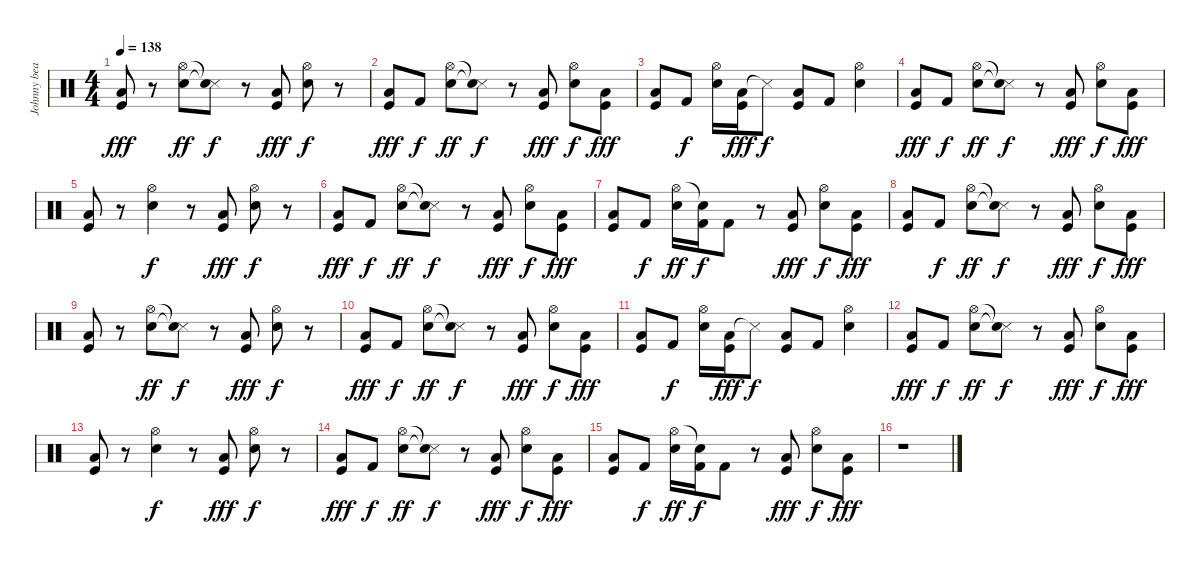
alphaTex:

\track ("Johnny beat" "Johnny bea") {instrument percussion}
\staff {score}
\articulation defaults
\ts (4 4)
\tempo 138
\clef neutral
\ks c
("Low Tom (hit)" "Kick (hit)").8{dy fff} r.8 ("Electric Snare (hit)" "Hi-Hat (open)").8{dy ff} ("Snare (side stick) 3"{t} "Snare (hit)"{t}).8{dy f} r.8 ("Low Tom (hit)" "Kick (hit)").8{dy fff} ("Electric Snare (hit)" "Hi-Hat (open)").8{dy f} r.8 |
("Low Tom (hit)" "Kick (hit)").8{dy fff} "Kick (hit) 2".8{dy f} ("Electric Snare (hit)" "Hi-Hat (open)").8{dy ff} ("Snare (side stick) 3"{t} "Snare (hit)"{t}).8{dy f} r.8 ("Low Tom (hit)" "Kick (hit)").8{dy fff} ("Electric Snare (hit)" "Hi-Hat (open)").8{dy f} ("Low Tom (hit)" "Kick (hit)").8{dy fff} |
("Low Tom (hit)" "Kick (hit)").8 "Kick (hit) 2".8{dy f} ("Electric Snare (hit)" "Hi-Hat (open)").16 ("Low Tom (hit)" "Kick (hit)").16{dy fff} "Snare (side stick) 3"{t}.8{dy f} ("Kick (hit)" "Low Tom (hit)").8 "Kick (hit) 2".8 ("Electric Snare (hit)" "Hi-Hat (open)").4 |
("Low Tom (hit)" "Kick (hit)").8{dy fff} "Kick (hit) 2".8{dy f} ("Electric Snare (hit)" "Hi-Hat (open)").8{dy ff} ("Snare (side stick) 3"{t} "Snare (hit)"{t}).8{dy f} r.8 ("Low Tom (hit)" "Kick (hit)").8{dy fff} ("Electric Snare (hit)" "Hi-Hat (open)").8{dy f} ("Low Tom (hit)" "Kick (hit)").8{dy fff} |
("Low Tom (hit)" "Kick (hit)").8 r.8 ("Electric Snare (hit)" "Hi-Hat (open)").4{dy f} r.8 ("Low Tom (hit)" "Kick (hit)").8{dy fff} ("Electric Snare (hit)" "Hi-Hat (open)").8{dy f} r.8 |
("Low Tom (hit)" "Kick (hit)").8{dy fff} "Kick (hit) 2".8{dy f} ("Electric Snare (hit)" "Hi-Hat (open)").8{dy ff} ("Snare (side stick) 3"{t} "Snare (hit)"{t}).8{dy f} r.8 ("Low Tom (hit)" "Kick (hit)").8{dy fff} ("Electric Snare (hit)" "Hi-Hat (open)").8{dy f} ("Low Tom (hit)" "Kick (hit)").8{dy fff} |
("Low Tom (hit)" "Kick (hit)").8 "Kick (hit) 2".8{dy f} ("Electric Snare (hit)" "Hi-Hat (open)").16{dy ff} ("Kick (hit) 2" "Snare (hit)"{t}).16{dy f} "Kick (hit) 2".8 r.8 ("Low Tom (hit)" "Kick (hit)").8{dy fff} ("Electric Snare (hit)" "Hi-Hat (open)").8{dy f} ("Low Tom (hit)" "Kick (hit)").8{dy fff} |
("Low Tom (hit)" "Kick (hit)").8 "Kick (hit) 2".8{dy f} ("Electric Snare (hit)" "Hi-Hat (open)").8{dy ff} ("Snare (side stick) 3"{t} "Snare (hit)"{t}).8{dy f} r.8 ("Low Tom (hit)" "Kick (hit)").8{dy fff} ("Electric Snare (hit)" "Hi-Hat (open)").8{dy f} ("Low Tom (hit)" "Kick (hit)").8{dy fff} |
("Low Tom (hit)" "Kick (hit)").8 r.8 ("Electric Snare (hit)" "Hi-Hat (open)").8{dy ff} ("Snare (side stick) 3"{t} "Snare (hit)"{t}).8{dy f} r.8 ("Low Tom (hit)" "Kick (hit)").8{dy fff} ("Electric Snare (hit)" "Hi-Hat (open)").8{dy f} r.8 |
("Low Tom (hit)" "Kick (hit)").8{dy fff} "Kick (hit) 2".8{dy f} ("Electric Snare (hit)" "Hi-Hat (open)").8{dy ff} ("Snare (side stick) 3"{t} "Snare (hit)"{t}).8{dy f} r.8 ("Low Tom (hit)" "Kick (hit)").8{dy fff} ("Electric Snare (hit)" "Hi-Hat (open)").8{dy f} ("Low Tom (hit)" "Kick (hit)").8{dy fff} |
("Low Tom (hit)" "Kick (hit)").8 "Kick (hit) 2".8{dy f} ("Electric Snare (hit)" "Hi-Hat (open)").16 ("Low Tom (hit)" "Kick (hit)").16{dy fff} "Snare (side stick) 3"{t}.8{dy f} ("Kick (hit)" "Low Tom (hit)").8 "Kick (hit) 2".8 ("Electric Snare (hit)" "Hi-Hat (open)").4 |
("Low Tom (hit)" "Kick (hit)").8{dy fff} "Kick (hit) 2".8{dy f} ("Electric Snare (hit)" "Hi-Hat (open)").8{dy ff} ("Snare (side stick) 3"{t} "Snare (hit)"{t}).8{dy f} r.8 ("Low Tom (hit)" "Kick (hit)").8{dy fff} ("Electric Snare (hit)" "Hi-Hat (open)").8{dy f} ("Low Tom (hit)" "Kick (hit)").8{dy fff} |
("Low Tom (hit)" "Kick (hit)").8 r.8 ("Electric Snare (hit)" "Hi-Hat (open)").4{dy f} r.8 ("Low Tom (hit)" "Kick (hit)").8{dy fff} ("Electric Snare (hit)" "Hi-Hat (open)").8{dy f} r.8 |
("Low Tom (hit)" "Kick (hit)").8{dy fff} "Kick (hit) 2".8{dy f} ("Electric Snare (hit)" "Hi-Hat (open)").8{dy ff} ("Snare (side stick) 3"{t} "Snare (hit)"{t}).8{dy f} r.8 ("Low Tom (hit)" "Kick (hit)").8{dy fff} ("Electric Snare (hit)" "Hi-Hat (open)").8{dy f} ("Low Tom (hit)" "Kick (hit)").8{dy fff} |
("Low Tom (hit)" "Kick (hit)").8 "Kick (hit) 2".8{dy f} ("Electric Snare (hit)" "Hi-Hat (open)").16{dy ff} ("Kick (hit) 2" "Snare (hit)"{t}).16{dy f} "Kick (hit) 2".8 r.8 ("Low Tom (hit)" "Kick (hit)").8{dy fff} ("Electric Snare (hit)" "Hi-Hat (open)").8{dy f} ("Low Tom (hit)" "Kick (hit)").8{dy fff} |
r.1
